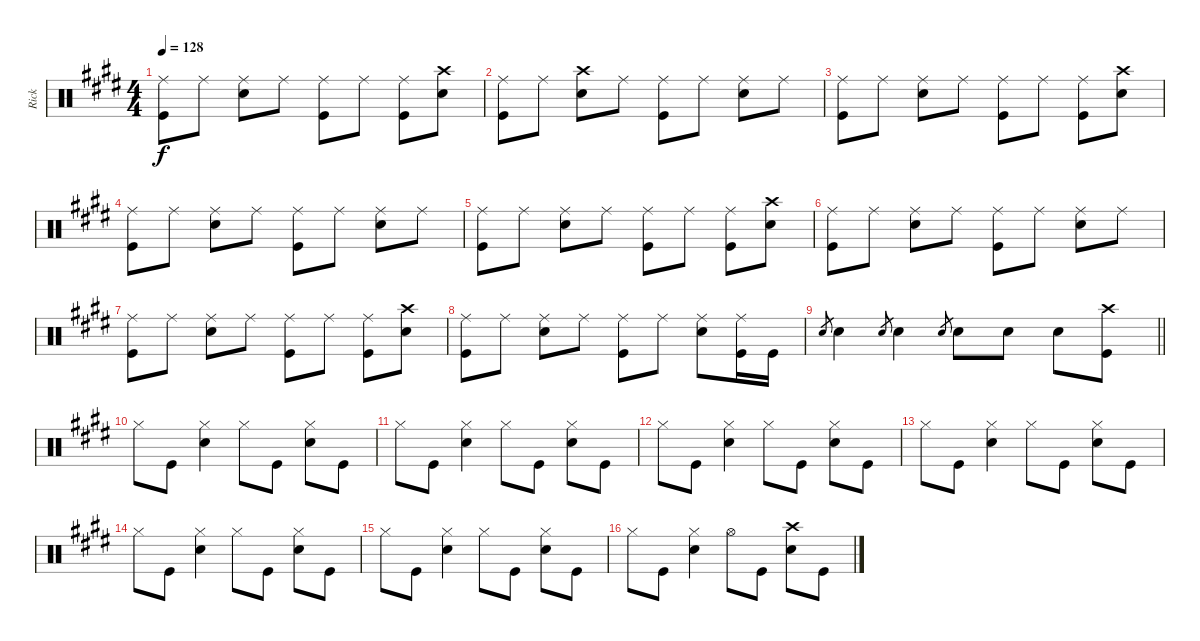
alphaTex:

\track ("Rick" "Rick") {instrument percussion}
\staff {score}
\articulation defaults
\ts (4 4)
\tempo 128
\clef neutral
\ks c#minor
("Ride (middle)" "Kick (hit)").8{dy f} "Ride (middle)".8 ("Ride (middle)" "Snare (hit) 2").8 "Ride (middle)".8 ("Ride (middle)" "Kick (hit)").8 "Ride (middle)".8 ("Ride (middle)" "Kick (hit)").8 ("Crash high (hit)" "Snare (hit) 2").8 |
("Ride (middle)" "Kick (hit)").8 "Ride (middle)".8 ("Crash high (hit)" "Snare (hit) 2").8 "Ride (middle)".8 ("Ride (middle)" "Kick (hit)").8 "Ride (middle)".8 ("Ride (middle)" "Snare (hit) 2").8 "Ride (middle)".8 |
("Ride (middle)" "Kick (hit)").8 "Ride (middle)".8 ("Ride (middle)" "Snare (hit) 2").8 "Ride (middle)".8 ("Ride (middle)" "Kick (hit)").8 "Ride (middle)".8 ("Ride (middle)" "Kick (hit)").8 ("Crash high (hit)" "Snare (hit) 2").8 |
("Ride (middle)" "Kick (hit)").8 "Ride (middle)".8 ("Ride (middle)" "Snare (hit) 2").8 "Ride (middle)".8 ("Ride (middle)" "Kick (hit)").8 "Ride (middle)".8 ("Ride (middle)" "Snare (hit) 2").8 "Ride (middle)".8 |
("Ride (middle)" "Kick (hit)").8 "Ride (middle)".8 ("Ride (middle)" "Snare (hit) 2").8 "Ride (middle)".8 ("Ride (middle)" "Kick (hit)").8 "Ride (middle)".8 ("Ride (middle)" "Kick (hit)").8 ("Crash high (hit)" "Snare (hit) 2").8 |
("Ride (middle)" "Kick (hit)").8 "Ride (middle)".8 ("Ride (middle)" "Snare (hit) 2").8 "Ride (middle)".8 ("Ride (middle)" "Kick (hit)").8 "Ride (middle)".8 ("Ride (middle)" "Snare (hit) 2").8 "Ride (middle)".8 |
("Ride (middle)" "Kick (hit)").8 "Ride (middle)".8 ("Ride (middle)" "Snare (hit) 2").8 "Ride (middle)".8 ("Ride (middle)" "Kick (hit)").8 "Ride (middle)".8 ("Ride (middle)" "Kick (hit)").8 ("Crash high (hit)" "Snare (hit) 2").8 |
("Ride (middle)" "Kick (hit)").8 "Ride (middle)".8 ("Ride (middle)" "Snare (hit) 2").8 "Ride (middle)".8 ("Ride (middle)" "Kick (hit)").8 "Ride (middle)".8 ("Ride (middle)" "Snare (hit) 2").8 ("Ride (middle)" "Kick (hit)").16 "Kick (hit)".16 |
\barLineRight lightlight "Snare (hit) 2".8{gr} "Snare (hit) 2".4 "Snare (hit) 2".8{gr} "Snare (hit) 2".4 "Snare (hit) 2".8{gr} "Snare (hit) 2".8 "Snare (hit) 2".8 "Snare (hit) 2".8
("Crash high (hit)" "Kick (hit)").8 |
"Hi-Hat (closed)".8 "Kick (hit)".8 ("Hi-Hat (closed)" "Snare (hit) 2").4 "Hi-Hat (closed)".8 "Kick (hit)".8 ("Hi-Hat (closed)" "Snare (hit) 2").8 "Kick (hit)".8 |
"Hi-Hat (closed)".8 "Kick (hit)".8 ("Hi-Hat (closed)" "Snare (hit) 2").4 "Hi-Hat (closed)".8 "Kick (hit)".8 ("Hi-Hat (closed)" "Snare (hit) 2").8 "Kick (hit)".8 |
"Hi-Hat (closed)".8 "Kick (hit)".8 ("Hi-Hat (closed)" "Snare (hit) 2").4 "Hi-Hat (closed)".8 "Kick (hit)".8 ("Hi-Hat (closed)" "Snare (hit) 2").8 "Kick (hit)".8 |
"Hi-Hat (closed)".8 "Kick (hit)".8 ("Hi-Hat (closed)" "Snare (hit) 2").4 "Hi-Hat (closed)".8 "Kick (hit)".8 ("Hi-Hat (closed)" "Snare (hit) 2").8 "Kick (hit)".8 |
"Hi-Hat (closed)".8 "Kick (hit)".8 ("Hi-Hat (closed)" "Snare (hit) 2").4 "Hi-Hat (closed)".8 "Kick (hit)".8 ("Hi-Hat (closed)" "Snare (hit) 2").8 "Kick (hit)".8 |
"Hi-Hat (closed)".8 "Kick (hit)".8 ("Hi-Hat (closed)" "Snare (hit) 2").4 "Hi-Hat (closed)".8 "Kick (hit)".8 ("Hi-Hat (closed)" "Snare (hit) 2").8 "Kick (hit)".8 |
"Hi-Hat (closed)".8 "Kick (hit)".8 ("Hi-Hat (closed)" "Snare (hit) 2").4 "Hi-Hat (open)".8 "Kick (hit)".8 ("Crash high (hit)" "Snare (hit) 2").8 "Kick (hit)".8
